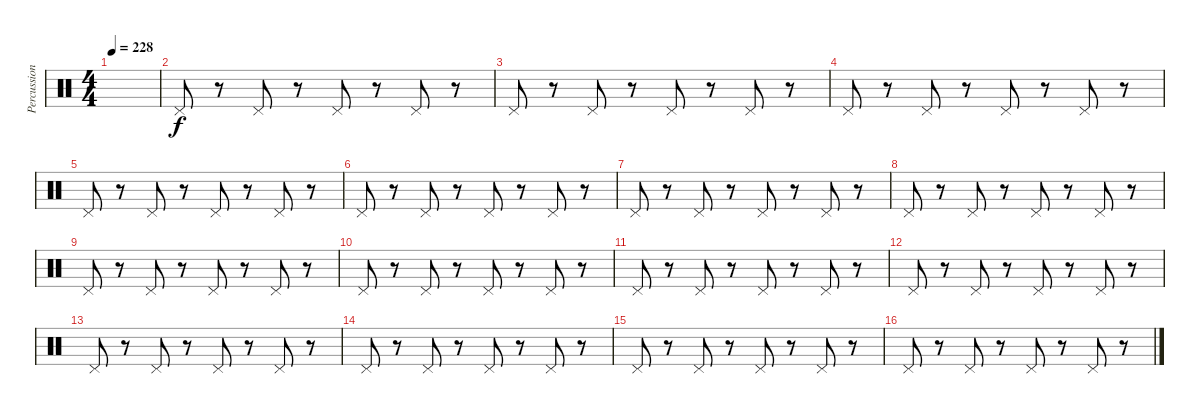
\track ("Percussions" "Percussion") {instrument percussion}
\staff {score}
\articulation defaults
\ts (4 4)
\tempo 228
\clef neutral
\ks c
|
"Pedal Hi-Hat (hit)".8 r.8 "Pedal Hi-Hat (hit)".8 r.8 "Pedal Hi-Hat (hit)".8 r.8 "Pedal Hi-Hat (hit)".8 r.8 |
"Pedal Hi-Hat (hit)".8 r.8 "Pedal Hi-Hat (hit)".8 r.8 "Pedal Hi-Hat (hit)".8 r.8 "Pedal Hi-Hat (hit)".8 r.8 |
"Pedal Hi-Hat (hit)".8 r.8 "Pedal Hi-Hat (hit)".8 r.8 "Pedal Hi-Hat (hit)".8 r.8 "Pedal Hi-Hat (hit)".8 r.8 |
"Pedal Hi-Hat (hit)".8 r.8 "Pedal Hi-Hat (hit)".8 r.8 "Pedal Hi-Hat (hit)".8 r.8 "Pedal Hi-Hat (hit)".8 r.8 |
"Pedal Hi-Hat (hit)".8 r.8 "Pedal Hi-Hat (hit)".8 r.8 "Pedal Hi-Hat (hit)".8 r.8 "Pedal Hi-Hat (hit)".8 r.8 |
"Pedal Hi-Hat (hit)".8 r.8 "Pedal Hi-Hat (hit)".8 r.8 "Pedal Hi-Hat (hit)".8 r.8 "Pedal Hi-Hat (hit)".8 r.8 |
"Pedal Hi-Hat (hit)".8 r.8 "Pedal Hi-Hat (hit)".8 r.8 "Pedal Hi-Hat (hit)".8 r.8 "Pedal Hi-Hat (hit)".8 r.8 |
"Pedal Hi-Hat (hit)".8 r.8 "Pedal Hi-Hat (hit)".8 r.8 "Pedal Hi-Hat (hit)".8 r.8 "Pedal Hi-Hat (hit)".8 r.8 |
"Pedal Hi-Hat (hit)".8 r.8 "Pedal Hi-Hat (hit)".8 r.8 "Pedal Hi-Hat (hit)".8 r.8 "Pedal Hi-Hat (hit)".8 r.8 |
"Pedal Hi-Hat (hit)".8 r.8 "Pedal Hi-Hat (hit)".8 r.8 "Pedal Hi-Hat (hit)".8 r.8 "Pedal Hi-Hat (hit)".8 r.8 |
"Pedal Hi-Hat (hit)".8 r.8 "Pedal Hi-Hat (hit)".8 r.8 "Pedal Hi-Hat (hit)".8 r.8 "Pedal Hi-Hat (hit)".8 r.8 |
"Pedal Hi-Hat (hit)".8 r.8 "Pedal Hi-Hat (hit)".8 r.8 "Pedal Hi-Hat (hit)".8 r.8 "Pedal Hi-Hat (hit)".8 r.8 |
"Pedal Hi-Hat (hit)".8 r.8 "Pedal Hi-Hat (hit)".8 r.8 "Pedal Hi-Hat (hit)".8 r.8 "Pedal Hi-Hat (hit)".8 r.8 |
"Pedal Hi-Hat (hit)".8 r.8 "Pedal Hi-Hat (hit)".8 r.8 "Pedal Hi-Hat (hit)".8 r.8 "Pedal Hi-Hat (hit)".8 r.8 |
"Pedal Hi-Hat (hit)".8 r.8 "Pedal Hi-Hat (hit)".8 r.8 "Pedal Hi-Hat (hit)".8 r.8 "Pedal Hi-Hat (hit)".8 r.8
